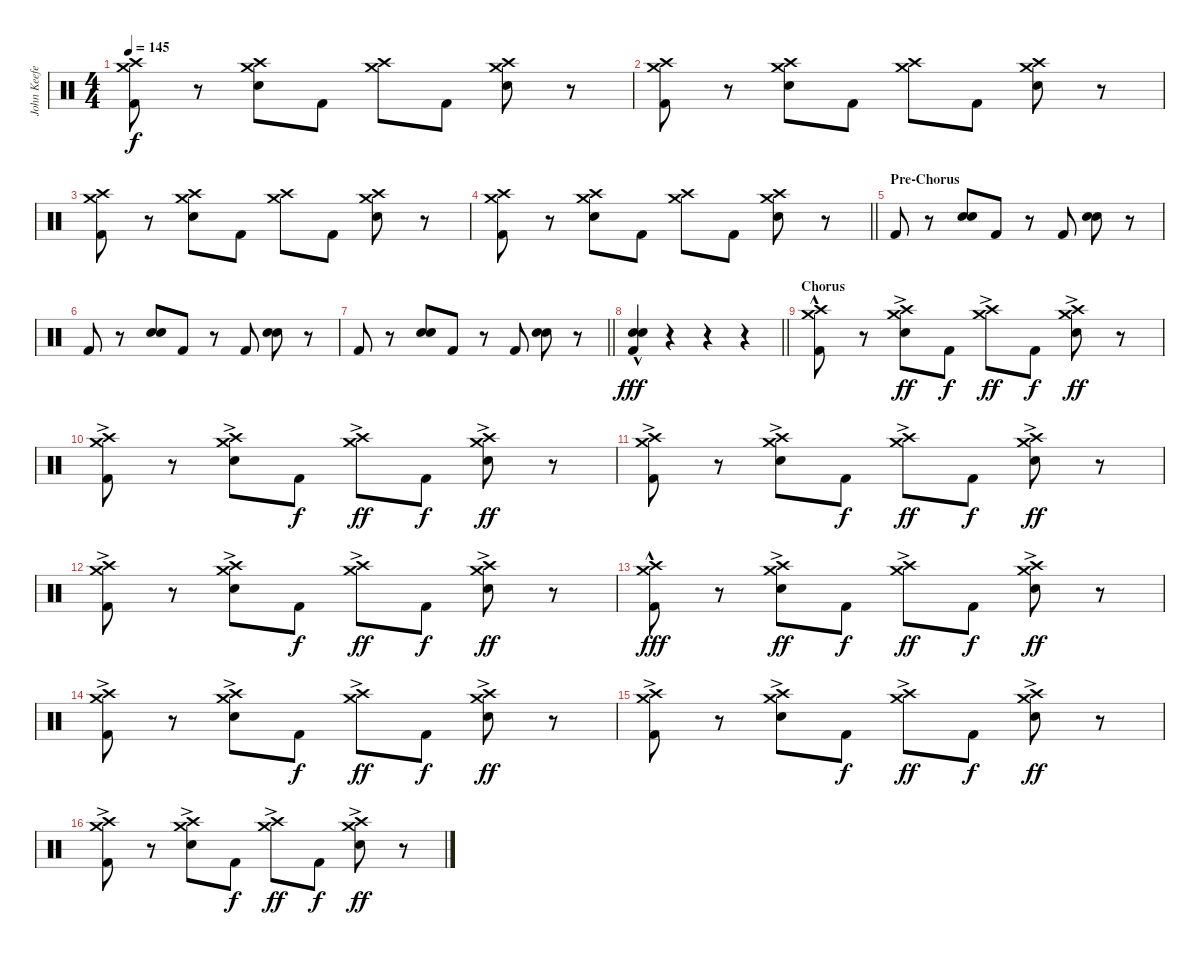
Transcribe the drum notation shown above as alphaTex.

\track ("John Keefe (Percussion)" "John Keefe") {instrument percussion}
\staff {score}
\articulation defaults
\ts (4 4)
\tempo 145
\clef neutral
\ks c
("Crash high (hit)" "Crash medium (hit)" "Kick (hit) 2").8{dy f} r.8 ("Crash high (hit)" "Crash medium (hit)" "Electric Snare (hit)").8 "Kick (hit) 2".8 ("Crash high (hit)" "Crash medium (hit)").8 "Kick (hit) 2".8 ("Crash high (hit)" "Crash medium (hit)" "Electric Snare (hit)").8 r.8 |
("Crash high (hit)" "Crash medium (hit)" "Kick (hit) 2").8 r.8 ("Crash high (hit)" "Crash medium (hit)" "Electric Snare (hit)").8 "Kick (hit) 2".8 ("Crash high (hit)" "Crash medium (hit)").8 "Kick (hit) 2".8 ("Crash high (hit)" "Crash medium (hit)" "Electric Snare (hit)").8 r.8 |
("Crash high (hit)" "Crash medium (hit)" "Kick (hit) 2").8 r.8 ("Crash high (hit)" "Crash medium (hit)" "Electric Snare (hit)").8 "Kick (hit) 2".8 ("Crash high (hit)" "Crash medium (hit)").8 "Kick (hit) 2".8 ("Crash high (hit)" "Crash medium (hit)" "Electric Snare (hit)").8 r.8 |
\barLineRight lightlight
("Crash high (hit)" "Crash medium (hit)" "Kick (hit) 2").8 r.8 ("Crash high (hit)" "Crash medium (hit)" "Electric Snare (hit)").8 "Kick (hit) 2".8 ("Crash high (hit)" "Crash medium (hit)").8 "Kick (hit) 2".8 ("Crash high (hit)" "Crash medium (hit)" "Electric Snare (hit)").8 r.8 |
\section ("" "Pre-Chorus")
"Kick (hit) 2".8 r.8 ("Snare (hit) 2" "Electric Snare (hit)").8 "Kick (hit) 2".8 r.8 "Kick (hit) 2".8 ("Snare (hit) 2" "Electric Snare (hit)").8 r.8 |
"Kick (hit) 2".8 r.8 ("Snare (hit) 2" "Electric Snare (hit)").8 "Kick (hit) 2".8 r.8 "Kick (hit) 2".8 ("Snare (hit) 2" "Electric Snare (hit)").8 r.8 |
\barLineRight lightlight "Kick (hit) 2".8
r.8 ("Snare (hit) 2" "Electric Snare (hit)").8 "Kick (hit) 2".8 r.8 "Kick (hit) 2".8 ("Snare (hit) 2" "Electric Snare (hit)").8 r.8 |
\section ("" "")
\barLineRight lightlight
("Snare (hit) 2" "Kick (hit) 2" "Electric Snare (hit)"{hac}).4{dy fff} r.4 r.4 r.4 |
\section ("" "Chorus")
("Crash high (hit)"{hac} "Crash medium (hit)"{hac} "Kick (hit) 2"{hac}).8 r.8 ("Crash high (hit)"{ac} "Crash medium (hit)"{ac} "Electric Snare (hit)").8{dy ff} "Kick (hit) 2".8{dy f} ("Crash high (hit)"{ac} "Crash medium (hit)"{ac}).8{dy ff} "Kick (hit) 2".8{dy f} ("Crash high (hit)"{ac} "Crash medium (hit)"{ac} "Electric Snare (hit)").8{dy ff} r.8 |
("Crash high (hit)"{ac} "Crash medium (hit)"{ac} "Kick (hit) 2").8 r.8 ("Crash high (hit)"{ac} "Crash medium (hit)"{ac} "Electric Snare (hit)").8 "Kick (hit) 2".8{dy f} ("Crash high (hit)"{ac} "Crash medium (hit)"{ac}).8{dy ff} "Kick (hit) 2".8{dy f} ("Crash high (hit)"{ac} "Crash medium (hit)"{ac} "Electric Snare (hit)").8{dy ff} r.8 |
("Crash high (hit)"{ac} "Crash medium (hit)"{ac} "Kick (hit) 2").8 r.8 ("Crash high (hit)"{ac} "Crash medium (hit)"{ac} "Electric Snare (hit)").8 "Kick (hit) 2".8{dy f} ("Crash high (hit)"{ac} "Crash medium (hit)"{ac}).8{dy ff} "Kick (hit) 2".8{dy f} ("Crash high (hit)"{ac} "Crash medium (hit)"{ac} "Electric Snare (hit)").8{dy ff} r.8 |
("Crash high (hit)"{ac} "Crash medium (hit)"{ac} "Kick (hit) 2").8 r.8 ("Crash high (hit)"{ac} "Crash medium (hit)"{ac} "Electric Snare (hit)").8 "Kick (hit) 2".8{dy f} ("Crash high (hit)"{ac} "Crash medium (hit)"{ac}).8{dy ff} "Kick (hit) 2".8{dy f} ("Crash high (hit)"{ac} "Crash medium (hit)"{ac} "Electric Snare (hit)").8{dy ff} r.8 |
("Crash high (hit)"{hac} "Crash medium (hit)"{hac} "Kick (hit) 2"{hac}).8{dy fff} r.8 ("Crash high (hit)"{ac} "Crash medium (hit)"{ac} "Electric Snare (hit)").8{dy ff} "Kick (hit) 2".8{dy f} ("Crash high (hit)"{ac} "Crash medium (hit)"{ac}).8{dy ff} "Kick (hit) 2".8{dy f} ("Crash high (hit)"{ac} "Crash medium (hit)"{ac} "Electric Snare (hit)").8{dy ff} r.8 |
("Crash high (hit)"{ac} "Crash medium (hit)"{ac} "Kick (hit) 2").8 r.8 ("Crash high (hit)"{ac} "Crash medium (hit)"{ac} "Electric Snare (hit)").8 "Kick (hit) 2".8{dy f} ("Crash high (hit)"{ac} "Crash medium (hit)"{ac}).8{dy ff} "Kick (hit) 2".8{dy f} ("Crash high (hit)"{ac} "Crash medium (hit)"{ac} "Electric Snare (hit)").8{dy ff} r.8 |
("Crash high (hit)"{ac} "Crash medium (hit)"{ac} "Kick (hit) 2").8 r.8 ("Crash high (hit)"{ac} "Crash medium (hit)"{ac} "Electric Snare (hit)").8 "Kick (hit) 2".8{dy f} ("Crash high (hit)"{ac} "Crash medium (hit)"{ac}).8{dy ff} "Kick (hit) 2".8{dy f} ("Crash high (hit)"{ac} "Crash medium (hit)"{ac} "Electric Snare (hit)").8{dy ff} r.8 |
("Crash high (hit)"{ac} "Crash medium (hit)"{ac} "Kick (hit) 2").8 r.8 ("Crash high (hit)"{ac} "Crash medium (hit)"{ac} "Electric Snare (hit)").8 "Kick (hit) 2".8{dy f} ("Crash high (hit)"{ac} "Crash medium (hit)"{ac}).8{dy ff} "Kick (hit) 2".8{dy f} ("Crash high (hit)"{ac} "Crash medium (hit)"{ac} "Electric Snare (hit)").8{dy ff} r.8
